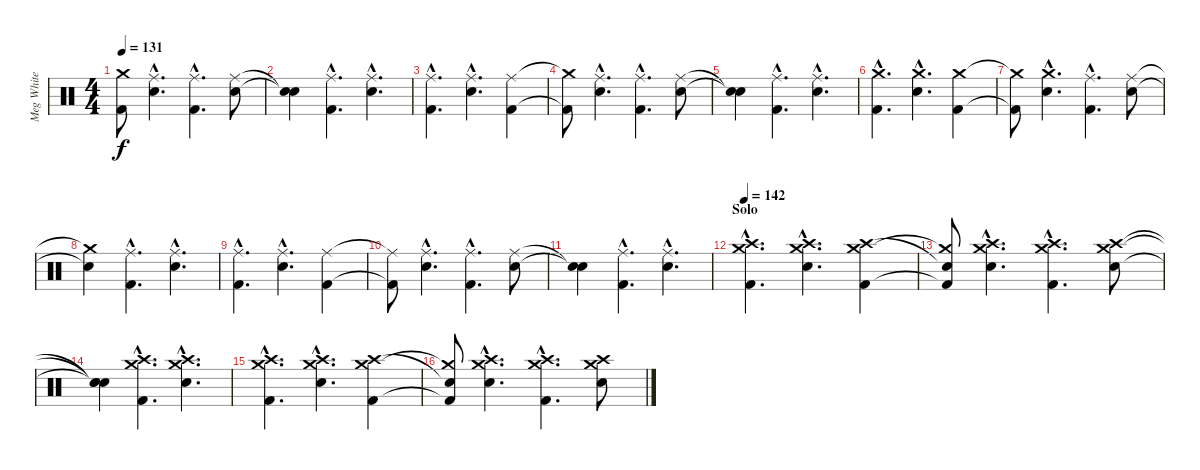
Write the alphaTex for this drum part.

\track ("Meg White" "Meg White") {instrument percussion}
\staff {score}
\articulation defaults
\ts (4 4)
\tempo 131
\clef neutral
\ks c
("Kick (hit) 2"{t} "Crash medium (hit)"{t}).8{dy f} ("Electric Snare (hit)"{hac} "Ride (middle)"{hac}).4{d} ("Kick (hit) 2"{hac} "Ride (middle)"{hac}).4{d} ("Electric Snare (hit)" "Ride (middle)").8 |
("Snare (hit)"{t} "Snare (hit)"{t}).4 ("Kick (hit) 2"{hac} "Ride (middle)"{hac}).4{d} ("Electric Snare (hit)"{hac} "Ride (middle)"{hac}).4{d} |
("Kick (hit) 2"{hac} "Ride (middle)"{hac}).4{d} ("Electric Snare (hit)"{hac} "Ride (middle)"{hac}).4{d} ("Kick (hit) 2" "Ride (middle)").4 |
("Kick (hit) 2"{t} "Crash medium (hit)"{t}).8 ("Electric Snare (hit)"{hac} "Ride (middle)"{hac}).4{d} ("Kick (hit) 2"{hac} "Ride (middle)"{hac}).4{d} ("Electric Snare (hit)" "Ride (middle)").8 |
("Snare (hit)"{t} "Snare (hit)"{t}).4 ("Kick (hit) 2"{hac} "Ride (middle)"{hac}).4{d} ("Electric Snare (hit)"{hac} "Ride (middle)"{hac}).4{d} |
("Kick (hit) 2"{hac} "Crash medium (hit)"{hac}).4{d} ("Electric Snare (hit)"{hac} "Crash medium (hit)"{hac}).4{d} ("Kick (hit) 2" "Crash medium (hit)").4 |
("Kick (hit) 2"{t} "Crash medium (hit)"{t}).8 ("Electric Snare (hit)"{hac} "Crash medium (hit)"{hac}).4{d} ("Kick (hit) 2"{hac} "Ride (middle)"{hac}).4{d} ("Electric Snare (hit)" "Ride (middle)").8 |
("Snare (hit)"{t} "Crash medium (hit)"{t}).4 ("Kick (hit) 2"{hac} "Ride (middle)"{hac}).4{d} ("Electric Snare (hit)"{hac} "Ride (middle)"{hac}).4{d} |
("Kick (hit) 2"{hac} "Ride (middle)"{hac}).4{d} ("Electric Snare (hit)"{hac} "Ride (middle)"{hac}).4{d} ("Kick (hit) 2" "Ride (middle)").4 |
("Kick (hit) 2"{t} "Ride (middle)"{t}).8 ("Electric Snare (hit)"{hac} "Ride (middle)"{hac}).4{d} ("Kick (hit) 2"{hac} "Ride (middle)"{hac}).4{d} ("Electric Snare (hit)" "Ride (middle)").8 |
("Snare (hit)"{t} "Snare (hit)"{t}).4 ("Kick (hit) 2"{hac} "Ride (middle)"{hac}).4{d} ("Electric Snare (hit)"{hac} "Ride (middle)"{hac}).4{d} |
\section ("" "Solo")
\tempo 142
("Kick (hit) 2"{hac} "Crash high (hit)"{hac} "Crash medium (hit)"{hac}).4{d} ("Electric Snare (hit)"{hac} "Crash high (hit)"{hac} "Crash medium (hit)"{hac}).4{d} ("Kick (hit) 2" "Crash high (hit)" "Crash medium (hit)").4 |
("Kick (hit) 2"{t} "Snare (hit)"{t} "Crash medium (hit)"{t}).8 ("Electric Snare (hit)"{hac} "Crash high (hit)"{hac} "Crash medium (hit)"{hac}).4{d} ("Kick (hit) 2"{hac} "Crash high (hit)"{hac} "Crash medium (hit)"{hac}).4{d} ("Electric Snare (hit)" "Crash high (hit)" "Crash medium (hit)").8 |
("Snare (hit)"{t} "Snare (hit)"{t} "Snare (hit)"{t}).4 ("Kick (hit) 2"{hac} "Crash high (hit)"{hac} "Crash medium (hit)"{hac}).4{d} ("Electric Snare (hit)"{hac} "Crash high (hit)"{hac} "Crash medium (hit)"{hac}).4{d} |
("Kick (hit) 2"{hac} "Crash high (hit)"{hac} "Crash medium (hit)"{hac}).4{d} ("Electric Snare (hit)"{hac} "Crash high (hit)"{hac} "Crash medium (hit)"{hac}).4{d} ("Kick (hit) 2" "Crash high (hit)" "Crash medium (hit)").4 |
("Kick (hit) 2"{t} "Snare (hit)"{t} "Crash medium (hit)"{t}).8 ("Electric Snare (hit)"{hac} "Crash high (hit)"{hac} "Crash medium (hit)"{hac}).4{d} ("Kick (hit) 2"{hac} "Crash high (hit)"{hac} "Crash medium (hit)"{hac}).4{d} ("Electric Snare (hit)" "Crash high (hit)" "Crash medium (hit)").8
